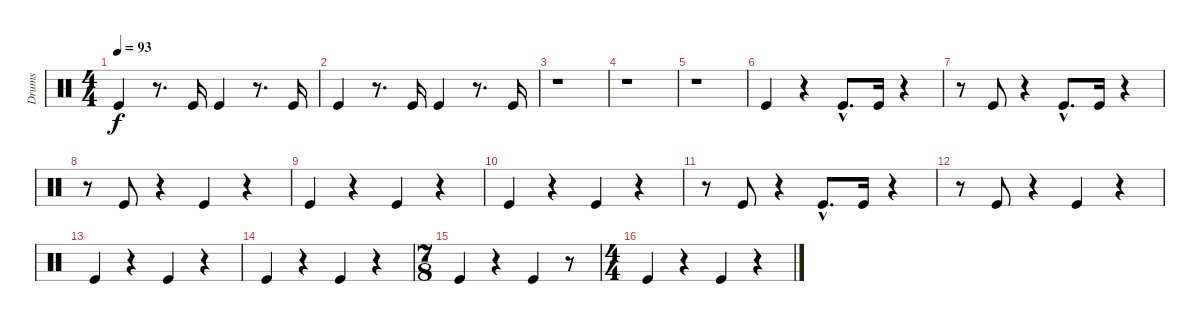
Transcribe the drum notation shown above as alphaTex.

\track ("Drums" "Drums") {instrument percussion}
\staff {score}
\articulation defaults
\ts (4 4)
\tempo 93
\clef neutral
\ks c "Kick (hit)".4{dy f}
r.8{d} "Kick (hit)".16 "Kick (hit)".4 r.8{d} "Kick (hit)".16 |
"Kick (hit)".4 r.8{d} "Kick (hit)".16 "Kick (hit)".4 r.8{d} "Kick (hit)".16 |
r.1 |
r.1 |
r.1 |
"Kick (hit)".4 r.4 "Kick (hit)"{hac}.8{d} "Kick (hit)".16 r.4 |
r.8 "Kick (hit)".8 r.4 "Kick (hit)"{hac}.8{d} "Kick (hit)".16 r.4 |
r.8 "Kick (hit)".8 r.4 "Kick (hit)".4 r.4 |
"Kick (hit)".4 r.4 "Kick (hit)".4 r.4 |
"Kick (hit)".4 r.4 "Kick (hit)".4 r.4 |
r.8 "Kick (hit)".8 r.4 "Kick (hit)"{hac}.8{d} "Kick (hit)".16 r.4 |
r.8 "Kick (hit)".8 r.4 "Kick (hit)".4 r.4 |
"Kick (hit)".4 r.4 "Kick (hit)".4 r.4 |
"Kick (hit)".4 r.4 "Kick (hit)".4 r.4 |
\ts (7 8)
"Kick (hit)".4 r.4 "Kick (hit)".4 r.8 |
\ts (4 4)
"Kick (hit)".4 r.4 "Kick (hit)".4 r.4
